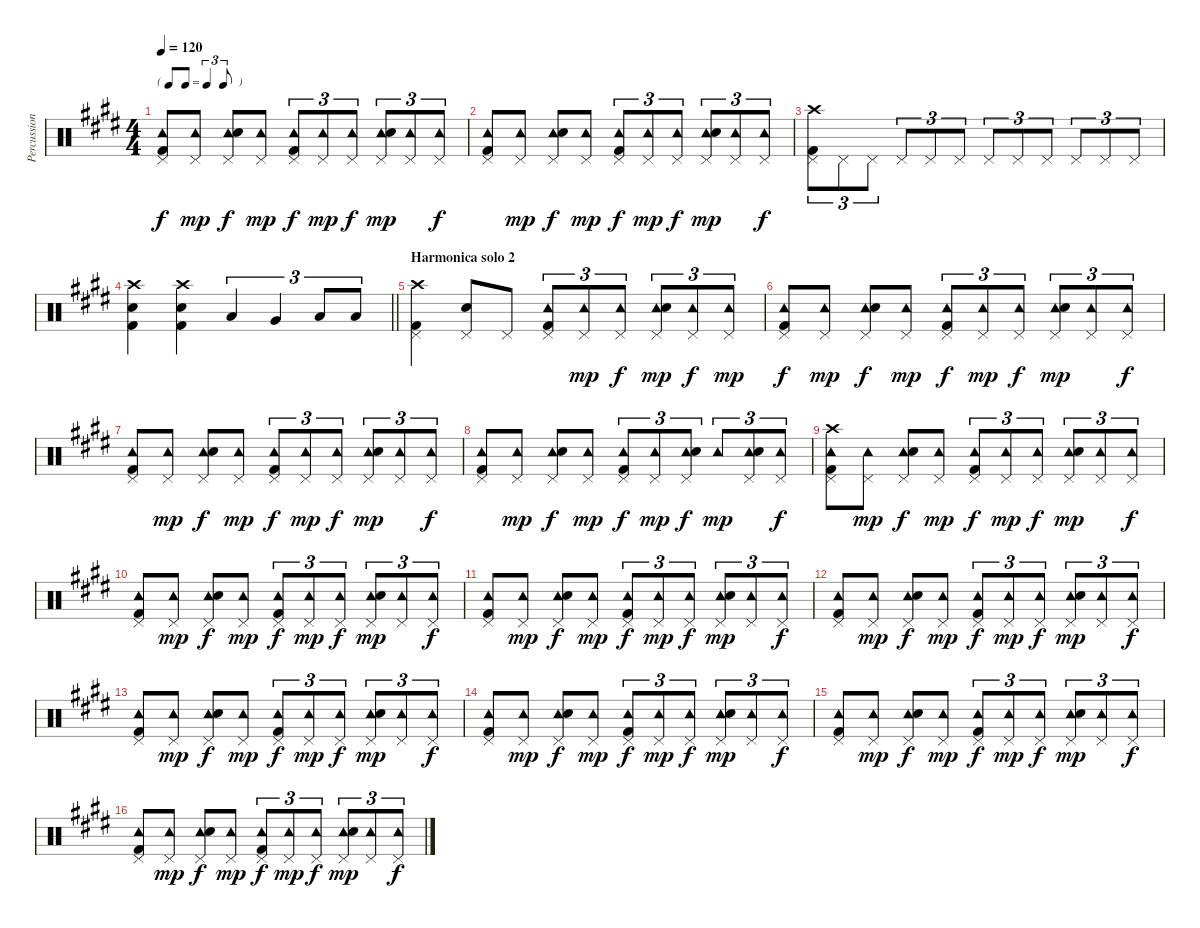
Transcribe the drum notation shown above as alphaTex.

\track ("Percussion" "Percussion") {instrument percussion}
\staff {score}
\articulation defaults
\ts (4 4)
\tf triplet8th
\tempo 120
\clef neutral
\ks e
("Tambourine (hit)" "Pedal Hi-Hat (hit)" "Kick (hit) 2").8{dy f} ("Tambourine (hit)" "Pedal Hi-Hat (hit)").8{dy mp} ("Tambourine (hit)" "Pedal Hi-Hat (hit)" "Electric Snare (hit)").8{dy f} ("Tambourine (hit)" "Pedal Hi-Hat (hit)").8{dy mp} ("Tambourine (hit)" "Pedal Hi-Hat (hit)" "Kick (hit) 2").8{tu (3 2) dy f} ("Tambourine (hit)" "Pedal Hi-Hat (hit)").8{tu (3 2) dy mp} ("Tambourine (hit)" "Pedal Hi-Hat (hit)").8{tu (3 2) dy f} ("Tambourine (hit)" "Pedal Hi-Hat (hit)" "Electric Snare (hit)").8{tu (3 2) dy mp} ("Tambourine (hit)" "Pedal Hi-Hat (hit)").8{tu (3 2)} ("Tambourine (hit)" "Pedal Hi-Hat (hit)").8{tu (3 2) dy f} |
("Tambourine (hit)" "Pedal Hi-Hat (hit)" "Kick (hit) 2").8 ("Tambourine (hit)" "Pedal Hi-Hat (hit)").8{dy mp} ("Tambourine (hit)" "Pedal Hi-Hat (hit)" "Electric Snare (hit)").8{dy f} ("Tambourine (hit)" "Pedal Hi-Hat (hit)").8{dy mp} ("Tambourine (hit)" "Pedal Hi-Hat (hit)" "Kick (hit) 2").8{tu (3 2) dy f} ("Tambourine (hit)" "Pedal Hi-Hat (hit)").8{tu (3 2) dy mp} ("Tambourine (hit)" "Pedal Hi-Hat (hit)").8{tu (3 2) dy f} ("Tambourine (hit)" "Pedal Hi-Hat (hit)" "Electric Snare (hit)").8{tu (3 2) dy mp} ("Tambourine (hit)" "Pedal Hi-Hat (hit)").8{tu (3 2)} ("Tambourine (hit)" "Pedal Hi-Hat (hit)").8{tu (3 2) dy f} |
("Crash high (hit)" "Pedal Hi-Hat (hit)" "Kick (hit) 2").8{tu (3 2) volume 14} "Pedal Hi-Hat (hit)".8{tu (3 2)} "Pedal Hi-Hat (hit)".8{tu (3 2)} "Pedal Hi-Hat (hit)".8{tu (3 2)} "Pedal Hi-Hat (hit)".8{tu (3 2)} "Pedal Hi-Hat (hit)".8{tu (3 2)} "Pedal Hi-Hat (hit)".8{tu (3 2)} "Pedal Hi-Hat (hit)".8{tu (3 2)} "Pedal Hi-Hat (hit)".8{tu (3 2)} "Pedal Hi-Hat (hit)".8{tu (3 2)} "Pedal Hi-Hat (hit)".8{tu (3 2)} "Pedal Hi-Hat (hit)".8{tu (3 2)} |
\barLineRight lightlight
("Crash high (hit)" "Electric Snare (hit)" "Kick (hit) 2").4 ("Crash high (hit)" "Electric Snare (hit)" "Kick (hit) 2").4 "Low Tom (hit)".4{tu (3 2)} "Very Low Tom (hit)".4{tu (3 2)} "Low Floor Tom (hit)".8{tu (3 2)} "Low Floor Tom (hit)".8{tu (3 2)} |
\section ("" "Harmonica solo 2")
("Crash high (hit)" "Pedal Hi-Hat (hit)" "Kick (hit) 2").4{volume 10} ("Pedal Hi-Hat (hit)" "Electric Snare (hit)").8 "Pedal Hi-Hat (hit)".8 ("Tambourine (hit)" "Pedal Hi-Hat (hit)" "Kick (hit) 2").8{tu (3 2)} ("Tambourine (hit)" "Pedal Hi-Hat (hit)").8{tu (3 2) dy mp} ("Tambourine (hit)" "Pedal Hi-Hat (hit)").8{tu (3 2) dy f} ("Tambourine (hit)" "Pedal Hi-Hat (hit)" "Electric Snare (hit)").8{tu (3 2) dy mp} ("Tambourine (hit)" "Pedal Hi-Hat (hit)").8{tu (3 2) dy f} ("Tambourine (hit)" "Pedal Hi-Hat (hit)").8{tu (3 2) dy mp} |
("Tambourine (hit)" "Pedal Hi-Hat (hit)" "Kick (hit) 2").8{dy f} ("Tambourine (hit)" "Pedal Hi-Hat (hit)").8{dy mp} ("Tambourine (hit)" "Pedal Hi-Hat (hit)" "Electric Snare (hit)").8{dy f} ("Tambourine (hit)" "Pedal Hi-Hat (hit)").8{dy mp} ("Tambourine (hit)" "Pedal Hi-Hat (hit)" "Kick (hit) 2").8{tu (3 2) dy f} ("Tambourine (hit)" "Pedal Hi-Hat (hit)").8{tu (3 2) dy mp} ("Tambourine (hit)" "Pedal Hi-Hat (hit)").8{tu (3 2) dy f} ("Tambourine (hit)" "Pedal Hi-Hat (hit)" "Electric Snare (hit)").8{tu (3 2) dy mp} ("Tambourine (hit)" "Pedal Hi-Hat (hit)").8{tu (3 2)} ("Tambourine (hit)" "Pedal Hi-Hat (hit)").8{tu (3 2) dy f} |
("Tambourine (hit)" "Pedal Hi-Hat (hit)" "Kick (hit) 2").8 ("Tambourine (hit)" "Pedal Hi-Hat (hit)").8{dy mp} ("Tambourine (hit)" "Pedal Hi-Hat (hit)" "Electric Snare (hit)").8{dy f} ("Tambourine (hit)" "Pedal Hi-Hat (hit)").8{dy mp} ("Tambourine (hit)" "Pedal Hi-Hat (hit)" "Kick (hit) 2").8{tu (3 2) dy f} ("Tambourine (hit)" "Pedal Hi-Hat (hit)").8{tu (3 2) dy mp} ("Tambourine (hit)" "Pedal Hi-Hat (hit)").8{tu (3 2) dy f} ("Tambourine (hit)" "Pedal Hi-Hat (hit)" "Electric Snare (hit)").8{tu (3 2) dy mp} ("Tambourine (hit)" "Pedal Hi-Hat (hit)").8{tu (3 2)} ("Tambourine (hit)" "Pedal Hi-Hat (hit)").8{tu (3 2) dy f} |
("Tambourine (hit)" "Pedal Hi-Hat (hit)" "Kick (hit) 2").8 ("Tambourine (hit)" "Pedal Hi-Hat (hit)").8{dy mp} ("Tambourine (hit)" "Pedal Hi-Hat (hit)" "Electric Snare (hit)").8{dy f} ("Tambourine (hit)" "Pedal Hi-Hat (hit)").8{dy mp} ("Tambourine (hit)" "Pedal Hi-Hat (hit)" "Kick (hit) 2").8{tu (3 2) dy f} ("Tambourine (hit)" "Pedal Hi-Hat (hit)").8{tu (3 2) dy mp} ("Tambourine (hit)" "Pedal Hi-Hat (hit)" "Electric Snare (hit)").8{tu (3 2) dy f} "Tambourine (hit)".8{tu (3 2) dy mp} ("Tambourine (hit)" "Pedal Hi-Hat (hit)" "Electric Snare (hit)").8{tu (3 2)} ("Tambourine (hit)" "Pedal Hi-Hat (hit)").8{tu (3 2) dy f} |
("Tambourine (hit)" "Crash high (hit)" "Pedal Hi-Hat (hit)" "Kick (hit) 2").8 ("Tambourine (hit)" "Pedal Hi-Hat (hit)").8{dy mp} ("Tambourine (hit)" "Pedal Hi-Hat (hit)" "Electric Snare (hit)").8{dy f} ("Tambourine (hit)" "Pedal Hi-Hat (hit)").8{dy mp} ("Tambourine (hit)" "Pedal Hi-Hat (hit)" "Kick (hit) 2").8{tu (3 2) dy f} ("Tambourine (hit)" "Pedal Hi-Hat (hit)").8{tu (3 2) dy mp} ("Tambourine (hit)" "Pedal Hi-Hat (hit)").8{tu (3 2) dy f} ("Tambourine (hit)" "Pedal Hi-Hat (hit)" "Electric Snare (hit)").8{tu (3 2) dy mp} ("Tambourine (hit)" "Pedal Hi-Hat (hit)").8{tu (3 2)} ("Tambourine (hit)" "Pedal Hi-Hat (hit)").8{tu (3 2) dy f} |
("Tambourine (hit)" "Pedal Hi-Hat (hit)" "Kick (hit) 2").8 ("Tambourine (hit)" "Pedal Hi-Hat (hit)").8{dy mp} ("Tambourine (hit)" "Pedal Hi-Hat (hit)" "Electric Snare (hit)").8{dy f} ("Tambourine (hit)" "Pedal Hi-Hat (hit)").8{dy mp} ("Tambourine (hit)" "Pedal Hi-Hat (hit)" "Kick (hit) 2").8{tu (3 2) dy f} ("Tambourine (hit)" "Pedal Hi-Hat (hit)").8{tu (3 2) dy mp} ("Tambourine (hit)" "Pedal Hi-Hat (hit)").8{tu (3 2) dy f} ("Tambourine (hit)" "Pedal Hi-Hat (hit)" "Electric Snare (hit)").8{tu (3 2) dy mp} ("Tambourine (hit)" "Pedal Hi-Hat (hit)").8{tu (3 2)} ("Tambourine (hit)" "Pedal Hi-Hat (hit)").8{tu (3 2) dy f} |
("Tambourine (hit)" "Pedal Hi-Hat (hit)" "Kick (hit) 2").8 ("Tambourine (hit)" "Pedal Hi-Hat (hit)").8{dy mp} ("Tambourine (hit)" "Pedal Hi-Hat (hit)" "Electric Snare (hit)").8{dy f} ("Tambourine (hit)" "Pedal Hi-Hat (hit)").8{dy mp} ("Tambourine (hit)" "Pedal Hi-Hat (hit)" "Kick (hit) 2").8{tu (3 2) dy f} ("Tambourine (hit)" "Pedal Hi-Hat (hit)").8{tu (3 2) dy mp} ("Tambourine (hit)" "Pedal Hi-Hat (hit)").8{tu (3 2) dy f} ("Tambourine (hit)" "Pedal Hi-Hat (hit)" "Electric Snare (hit)").8{tu (3 2) dy mp} ("Tambourine (hit)" "Pedal Hi-Hat (hit)").8{tu (3 2)} ("Tambourine (hit)" "Pedal Hi-Hat (hit)").8{tu (3 2) dy f} |
("Tambourine (hit)" "Pedal Hi-Hat (hit)" "Kick (hit) 2").8 ("Tambourine (hit)" "Pedal Hi-Hat (hit)").8{dy mp} ("Tambourine (hit)" "Pedal Hi-Hat (hit)" "Electric Snare (hit)").8{dy f} ("Tambourine (hit)" "Pedal Hi-Hat (hit)").8{dy mp} ("Tambourine (hit)" "Pedal Hi-Hat (hit)" "Kick (hit) 2").8{tu (3 2) dy f} ("Tambourine (hit)" "Pedal Hi-Hat (hit)").8{tu (3 2) dy mp} ("Tambourine (hit)" "Pedal Hi-Hat (hit)").8{tu (3 2) dy f} ("Tambourine (hit)" "Pedal Hi-Hat (hit)" "Electric Snare (hit)").8{tu (3 2) dy mp} ("Tambourine (hit)" "Pedal Hi-Hat (hit)").8{tu (3 2)} ("Tambourine (hit)" "Pedal Hi-Hat (hit)").8{tu (3 2) dy f} |
("Tambourine (hit)" "Pedal Hi-Hat (hit)" "Kick (hit) 2").8 ("Tambourine (hit)" "Pedal Hi-Hat (hit)").8{dy mp} ("Tambourine (hit)" "Pedal Hi-Hat (hit)" "Electric Snare (hit)").8{dy f} ("Tambourine (hit)" "Pedal Hi-Hat (hit)").8{dy mp} ("Tambourine (hit)" "Pedal Hi-Hat (hit)" "Kick (hit) 2").8{tu (3 2) dy f} ("Tambourine (hit)" "Pedal Hi-Hat (hit)").8{tu (3 2) dy mp} ("Tambourine (hit)" "Pedal Hi-Hat (hit)").8{tu (3 2) dy f} ("Tambourine (hit)" "Pedal Hi-Hat (hit)" "Electric Snare (hit)").8{tu (3 2) dy mp} ("Tambourine (hit)" "Pedal Hi-Hat (hit)").8{tu (3 2)} ("Tambourine (hit)" "Pedal Hi-Hat (hit)").8{tu (3 2) dy f} |
("Tambourine (hit)" "Pedal Hi-Hat (hit)" "Kick (hit) 2").8 ("Tambourine (hit)" "Pedal Hi-Hat (hit)").8{dy mp} ("Tambourine (hit)" "Pedal Hi-Hat (hit)" "Electric Snare (hit)").8{dy f} ("Tambourine (hit)" "Pedal Hi-Hat (hit)").8{dy mp} ("Tambourine (hit)" "Pedal Hi-Hat (hit)" "Kick (hit) 2").8{tu (3 2) dy f} ("Tambourine (hit)" "Pedal Hi-Hat (hit)").8{tu (3 2) dy mp} ("Tambourine (hit)" "Pedal Hi-Hat (hit)").8{tu (3 2) dy f} ("Tambourine (hit)" "Pedal Hi-Hat (hit)" "Electric Snare (hit)").8{tu (3 2) dy mp} ("Tambourine (hit)" "Pedal Hi-Hat (hit)").8{tu (3 2)} ("Tambourine (hit)" "Pedal Hi-Hat (hit)").8{tu (3 2) dy f} |
("Tambourine (hit)" "Pedal Hi-Hat (hit)" "Kick (hit) 2").8 ("Tambourine (hit)" "Pedal Hi-Hat (hit)").8{dy mp} ("Tambourine (hit)" "Pedal Hi-Hat (hit)" "Electric Snare (hit)").8{dy f} ("Tambourine (hit)" "Pedal Hi-Hat (hit)").8{dy mp} ("Tambourine (hit)" "Pedal Hi-Hat (hit)" "Kick (hit) 2").8{tu (3 2) dy f} ("Tambourine (hit)" "Pedal Hi-Hat (hit)").8{tu (3 2) dy mp} ("Tambourine (hit)" "Pedal Hi-Hat (hit)").8{tu (3 2) dy f} ("Tambourine (hit)" "Pedal Hi-Hat (hit)" "Electric Snare (hit)").8{tu (3 2) dy mp} ("Tambourine (hit)" "Pedal Hi-Hat (hit)").8{tu (3 2)} ("Tambourine (hit)" "Pedal Hi-Hat (hit)").8{tu (3 2) dy f} |
("Tambourine (hit)" "Pedal Hi-Hat (hit)" "Kick (hit) 2").8 ("Tambourine (hit)" "Pedal Hi-Hat (hit)").8{dy mp} ("Tambourine (hit)" "Pedal Hi-Hat (hit)" "Electric Snare (hit)").8{dy f} ("Tambourine (hit)" "Pedal Hi-Hat (hit)").8{dy mp} ("Tambourine (hit)" "Pedal Hi-Hat (hit)" "Kick (hit) 2").8{tu (3 2) dy f} ("Tambourine (hit)" "Pedal Hi-Hat (hit)").8{tu (3 2) dy mp} ("Tambourine (hit)" "Pedal Hi-Hat (hit)").8{tu (3 2) dy f} ("Tambourine (hit)" "Pedal Hi-Hat (hit)" "Electric Snare (hit)").8{tu (3 2) dy mp} ("Tambourine (hit)" "Pedal Hi-Hat (hit)").8{tu (3 2)} ("Tambourine (hit)" "Pedal Hi-Hat (hit)").8{tu (3 2) dy f}
